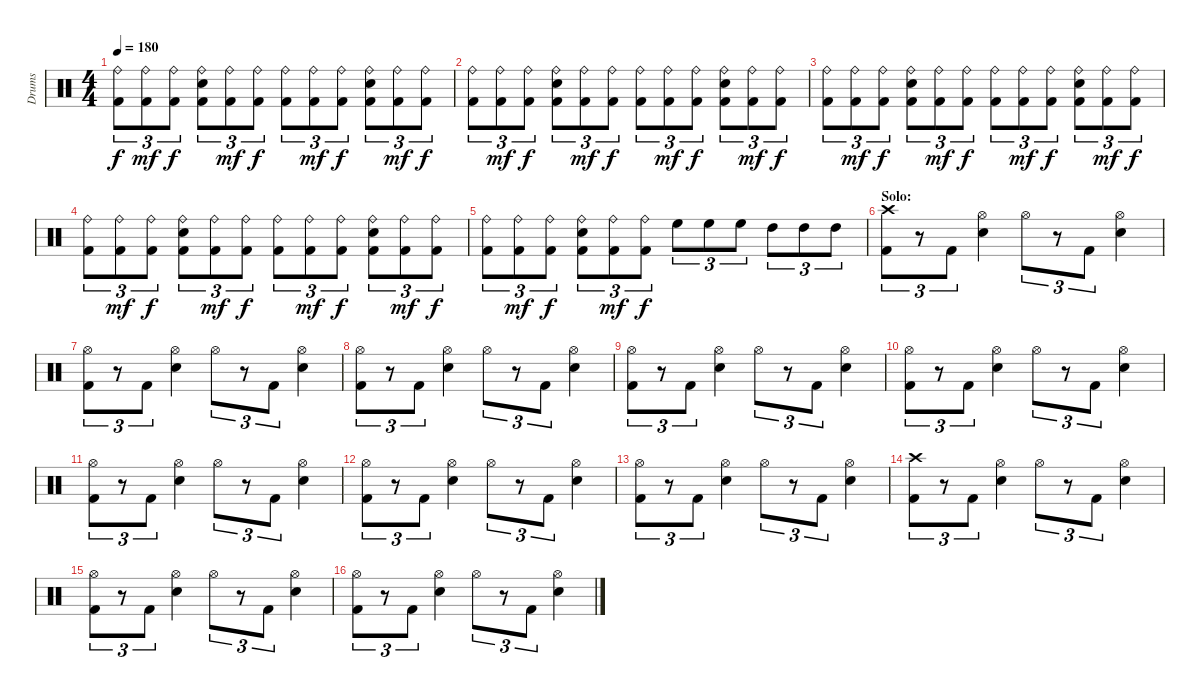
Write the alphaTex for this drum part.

\track ("Drums" "Drums") {instrument percussion}
\staff {score}
\articulation defaults
\ts (4 4)
\tempo 180
\clef neutral
\ks c
("Ride (bell)" "Kick (hit) 2").8{tu (3 2) dy f} ("Ride (bell)" "Kick (hit) 2").8{tu (3 2) dy mf} ("Ride (bell)" "Kick (hit) 2").8{tu (3 2) dy f} ("Ride (bell)" "Electric Snare (hit)" "Kick (hit) 2").8{tu (3 2)} ("Ride (bell)" "Kick (hit) 2").8{tu (3 2) dy mf} ("Ride (bell)" "Kick (hit) 2").8{tu (3 2) dy f} ("Ride (bell)" "Kick (hit) 2").8{tu (3 2)} ("Ride (bell)" "Kick (hit) 2").8{tu (3 2) dy mf} ("Ride (bell)" "Kick (hit) 2").8{tu (3 2) dy f} ("Ride (bell)" "Electric Snare (hit)" "Kick (hit) 2").8{tu (3 2)} ("Ride (bell)" "Kick (hit) 2").8{tu (3 2) dy mf} ("Ride (bell)" "Kick (hit) 2").8{tu (3 2) dy f} |
("Ride (bell)" "Kick (hit) 2").8{tu (3 2)} ("Ride (bell)" "Kick (hit) 2").8{tu (3 2) dy mf} ("Ride (bell)" "Kick (hit) 2").8{tu (3 2) dy f} ("Ride (bell)" "Electric Snare (hit)" "Kick (hit) 2").8{tu (3 2)} ("Ride (bell)" "Kick (hit) 2").8{tu (3 2) dy mf} ("Ride (bell)" "Kick (hit) 2").8{tu (3 2) dy f} ("Ride (bell)" "Kick (hit) 2").8{tu (3 2)} ("Ride (bell)" "Kick (hit) 2").8{tu (3 2) dy mf} ("Ride (bell)" "Kick (hit) 2").8{tu (3 2) dy f} ("Ride (bell)" "Electric Snare (hit)" "Kick (hit) 2").8{tu (3 2)} ("Ride (bell)" "Kick (hit) 2").8{tu (3 2) dy mf} ("Ride (bell)" "Kick (hit) 2").8{tu (3 2) dy f} |
("Ride (bell)" "Kick (hit) 2").8{tu (3 2)} ("Ride (bell)" "Kick (hit) 2").8{tu (3 2) dy mf} ("Ride (bell)" "Kick (hit) 2").8{tu (3 2) dy f} ("Ride (bell)" "Electric Snare (hit)" "Kick (hit) 2").8{tu (3 2)} ("Ride (bell)" "Kick (hit) 2").8{tu (3 2) dy mf} ("Ride (bell)" "Kick (hit) 2").8{tu (3 2) dy f} ("Ride (bell)" "Kick (hit) 2").8{tu (3 2)} ("Ride (bell)" "Kick (hit) 2").8{tu (3 2) dy mf} ("Ride (bell)" "Kick (hit) 2").8{tu (3 2) dy f} ("Ride (bell)" "Electric Snare (hit)" "Kick (hit) 2").8{tu (3 2)} ("Ride (bell)" "Kick (hit) 2").8{tu (3 2) dy mf} ("Ride (bell)" "Kick (hit) 2").8{tu (3 2) dy f} |
("Ride (bell)" "Kick (hit) 2").8{tu (3 2)} ("Ride (bell)" "Kick (hit) 2").8{tu (3 2) dy mf} ("Ride (bell)" "Kick (hit) 2").8{tu (3 2) dy f} ("Ride (bell)" "Electric Snare (hit)" "Kick (hit) 2").8{tu (3 2)} ("Ride (bell)" "Kick (hit) 2").8{tu (3 2) dy mf} ("Ride (bell)" "Kick (hit) 2").8{tu (3 2) dy f} ("Ride (bell)" "Kick (hit) 2").8{tu (3 2)} ("Ride (bell)" "Kick (hit) 2").8{tu (3 2) dy mf} ("Ride (bell)" "Kick (hit) 2").8{tu (3 2) dy f} ("Ride (bell)" "Electric Snare (hit)" "Kick (hit) 2").8{tu (3 2)} ("Ride (bell)" "Kick (hit) 2").8{tu (3 2) dy mf} ("Ride (bell)" "Kick (hit) 2").8{tu (3 2) dy f} |
("Ride (bell)" "Kick (hit) 2").8{tu (3 2)} ("Ride (bell)" "Kick (hit) 2").8{tu (3 2) dy mf} ("Ride (bell)" "Kick (hit) 2").8{tu (3 2) dy f} ("Ride (bell)" "Electric Snare (hit)" "Kick (hit) 2").8{tu (3 2)} ("Ride (bell)" "Kick (hit) 2").8{tu (3 2) dy mf} ("Ride (bell)" "Kick (hit) 2").8{tu (3 2) dy f} "High Floor Tom (hit)".8{tu (3 2)} "High Floor Tom (hit)".8{tu (3 2)} "High Floor Tom (hit)".8{tu (3 2)} "High Tom (hit)".8{tu (3 2)} "High Tom (hit)".8{tu (3 2)} "High Tom (hit)".8{tu (3 2)} |
\section ("" "Solo:")
("Crash high (hit)" "Kick (hit) 2").8{tu (3 2)} r.8{tu (3 2)} "Kick (hit) 2".8{tu (3 2)} ("Hi-Hat (open)" "Electric Snare (hit)").4 "Hi-Hat (open)".8{tu (3 2)} r.8{tu (3 2)} "Kick (hit) 2".8{tu (3 2)} ("Hi-Hat (open)" "Electric Snare (hit)").4 |
("Hi-Hat (open)" "Kick (hit) 2").8{tu (3 2)} r.8{tu (3 2)} "Kick (hit) 2".8{tu (3 2)} ("Hi-Hat (open)" "Electric Snare (hit)").4 "Hi-Hat (open)".8{tu (3 2)} r.8{tu (3 2)} "Kick (hit) 2".8{tu (3 2)} ("Hi-Hat (open)" "Electric Snare (hit)").4 |
("Hi-Hat (open)" "Kick (hit) 2").8{tu (3 2)} r.8{tu (3 2)} "Kick (hit) 2".8{tu (3 2)} ("Hi-Hat (open)" "Electric Snare (hit)").4 "Hi-Hat (open)".8{tu (3 2)} r.8{tu (3 2)} "Kick (hit) 2".8{tu (3 2)} ("Hi-Hat (open)" "Electric Snare (hit)").4 |
("Hi-Hat (open)" "Kick (hit) 2").8{tu (3 2)} r.8{tu (3 2)} "Kick (hit) 2".8{tu (3 2)} ("Hi-Hat (open)" "Electric Snare (hit)").4 "Hi-Hat (open)".8{tu (3 2)} r.8{tu (3 2)} "Kick (hit) 2".8{tu (3 2)} ("Hi-Hat (open)" "Electric Snare (hit)").4 |
("Hi-Hat (open)" "Kick (hit) 2").8{tu (3 2)} r.8{tu (3 2)} "Kick (hit) 2".8{tu (3 2)} ("Hi-Hat (open)" "Electric Snare (hit)").4 "Hi-Hat (open)".8{tu (3 2)} r.8{tu (3 2)} "Kick (hit) 2".8{tu (3 2)} ("Hi-Hat (open)" "Electric Snare (hit)").4 |
("Hi-Hat (open)" "Kick (hit) 2").8{tu (3 2)} r.8{tu (3 2)} "Kick (hit) 2".8{tu (3 2)} ("Hi-Hat (open)" "Electric Snare (hit)").4 "Hi-Hat (open)".8{tu (3 2)} r.8{tu (3 2)} "Kick (hit) 2".8{tu (3 2)} ("Hi-Hat (open)" "Electric Snare (hit)").4 |
("Hi-Hat (open)" "Kick (hit) 2").8{tu (3 2)} r.8{tu (3 2)} "Kick (hit) 2".8{tu (3 2)} ("Hi-Hat (open)" "Electric Snare (hit)").4 "Hi-Hat (open)".8{tu (3 2)} r.8{tu (3 2)} "Kick (hit) 2".8{tu (3 2)} ("Hi-Hat (open)" "Electric Snare (hit)").4 |
("Hi-Hat (open)" "Kick (hit) 2").8{tu (3 2)} r.8{tu (3 2)} "Kick (hit) 2".8{tu (3 2)} ("Hi-Hat (open)" "Electric Snare (hit)").4 "Hi-Hat (open)".8{tu (3 2)} r.8{tu (3 2)} "Kick (hit) 2".8{tu (3 2)} ("Hi-Hat (open)" "Electric Snare (hit)").4 |
("Crash high (hit)" "Kick (hit) 2").8{tu (3 2)} r.8{tu (3 2)} "Kick (hit) 2".8{tu (3 2)} ("Hi-Hat (open)" "Electric Snare (hit)").4 "Hi-Hat (open)".8{tu (3 2)} r.8{tu (3 2)} "Kick (hit) 2".8{tu (3 2)} ("Hi-Hat (open)" "Electric Snare (hit)").4 |
("Hi-Hat (open)" "Kick (hit) 2").8{tu (3 2)} r.8{tu (3 2)} "Kick (hit) 2".8{tu (3 2)} ("Hi-Hat (open)" "Electric Snare (hit)").4 "Hi-Hat (open)".8{tu (3 2)} r.8{tu (3 2)} "Kick (hit) 2".8{tu (3 2)} ("Hi-Hat (open)" "Electric Snare (hit)").4 |
("Hi-Hat (open)" "Kick (hit) 2").8{tu (3 2)} r.8{tu (3 2)} "Kick (hit) 2".8{tu (3 2)} ("Hi-Hat (open)" "Electric Snare (hit)").4 "Hi-Hat (open)".8{tu (3 2)} r.8{tu (3 2)} "Kick (hit) 2".8{tu (3 2)} ("Hi-Hat (open)" "Electric Snare (hit)").4
